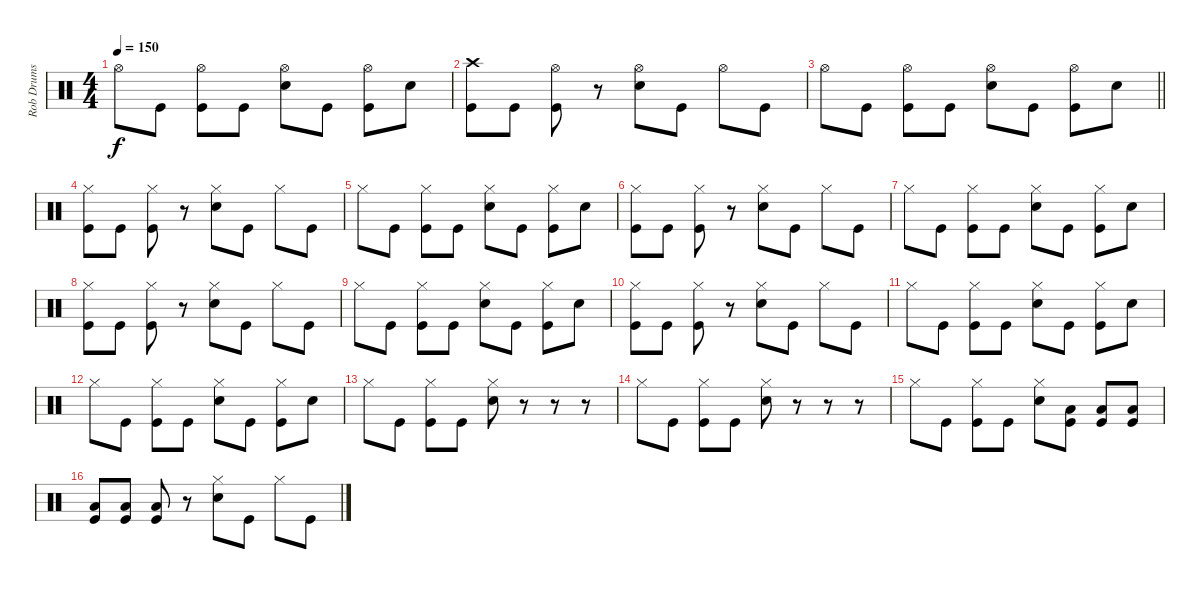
\track ("Rob Drums" "Rob Drums") {instrument percussion}
\staff {score}
\articulation defaults
\ts (4 4)
\tempo 150
\clef neutral
\ks c "Hi-Hat (open)".8{dy f} "Kick (hit)".8
("Hi-Hat (open)" "Kick (hit)").8 "Kick (hit)".8 ("Hi-Hat (open)" "Snare (hit) 2").8 "Kick (hit)".8 ("Hi-Hat (open)" "Kick (hit)").8 "Snare (hit) 2".8 |
("Crash high (hit)" "Kick (hit)").8 "Kick (hit)".8 ("Hi-Hat (open)" "Kick (hit)").8 r.8 ("Hi-Hat (open)" "Snare (hit) 2").8 "Kick (hit)".8 "Hi-Hat (open)".8 "Kick (hit)".8 |
\barLineRight lightlight "Hi-Hat (open)".8 "Kick (hit)".8
("Hi-Hat (open)" "Kick (hit)").8 "Kick (hit)".8 ("Hi-Hat (open)" "Snare (hit) 2").8 "Kick (hit)".8 ("Hi-Hat (open)" "Kick (hit)").8 "Snare (hit) 2".8 |
("Hi-Hat (closed)" "Kick (hit)").8 "Kick (hit)".8 ("Hi-Hat (closed)" "Kick (hit)").8 r.8 ("Hi-Hat (closed)" "Snare (hit) 2").8 "Kick (hit)".8 "Hi-Hat (closed)".8 "Kick (hit)".8 |
"Hi-Hat (closed)".8 "Kick (hit)".8 ("Hi-Hat (closed)" "Kick (hit)").8 "Kick (hit)".8 ("Hi-Hat (closed)" "Snare (hit) 2").8 "Kick (hit)".8 ("Hi-Hat (closed)" "Kick (hit)").8 "Snare (hit) 2".8 |
("Hi-Hat (closed)" "Kick (hit)").8 "Kick (hit)".8 ("Hi-Hat (closed)" "Kick (hit)").8 r.8 ("Hi-Hat (closed)" "Snare (hit) 2").8 "Kick (hit)".8 "Hi-Hat (closed)".8 "Kick (hit)".8 |
"Hi-Hat (closed)".8 "Kick (hit)".8 ("Hi-Hat (closed)" "Kick (hit)").8 "Kick (hit)".8 ("Hi-Hat (closed)" "Snare (hit) 2").8 "Kick (hit)".8 ("Hi-Hat (closed)" "Kick (hit)").8 "Snare (hit) 2".8 |
("Hi-Hat (closed)" "Kick (hit)").8 "Kick (hit)".8 ("Hi-Hat (closed)" "Kick (hit)").8 r.8 ("Hi-Hat (closed)" "Snare (hit) 2").8 "Kick (hit)".8 "Hi-Hat (closed)".8 "Kick (hit)".8 |
"Hi-Hat (closed)".8 "Kick (hit)".8 ("Hi-Hat (closed)" "Kick (hit)").8 "Kick (hit)".8 ("Hi-Hat (closed)" "Snare (hit) 2").8 "Kick (hit)".8 ("Hi-Hat (closed)" "Kick (hit)").8 "Snare (hit) 2".8 |
("Hi-Hat (closed)" "Kick (hit)").8 "Kick (hit)".8 ("Hi-Hat (closed)" "Kick (hit)").8 r.8 ("Hi-Hat (closed)" "Snare (hit) 2").8 "Kick (hit)".8 "Hi-Hat (closed)".8 "Kick (hit)".8 |
"Hi-Hat (closed)".8 "Kick (hit)".8 ("Hi-Hat (closed)" "Kick (hit)").8 "Kick (hit)".8 ("Hi-Hat (closed)" "Snare (hit) 2").8 "Kick (hit)".8 ("Hi-Hat (closed)" "Kick (hit)").8 "Snare (hit) 2".8 |
"Hi-Hat (closed)".8 "Kick (hit)".8 ("Hi-Hat (closed)" "Kick (hit)").8 "Kick (hit)".8 ("Hi-Hat (closed)" "Snare (hit) 2").8 "Kick (hit)".8 ("Hi-Hat (closed)" "Kick (hit)").8 "Snare (hit) 2".8 |
"Hi-Hat (closed)".8 "Kick (hit)".8 ("Hi-Hat (closed)" "Kick (hit)").8 "Kick (hit)".8 ("Hi-Hat (closed)" "Snare (hit) 2").8 r.8 r.8 r.8 |
"Hi-Hat (closed)".8 "Kick (hit)".8 ("Hi-Hat (closed)" "Kick (hit)").8 "Kick (hit)".8 ("Hi-Hat (closed)" "Snare (hit) 2").8 r.8 r.8 r.8 |
"Hi-Hat (closed)".8 "Kick (hit)".8 ("Hi-Hat (closed)" "Kick (hit)").8 "Kick (hit)".8 ("Hi-Hat (closed)" "Snare (hit) 2").8 ("Low Floor Tom (hit)" "Kick (hit)").8 ("Low Floor Tom (hit)" "Kick (hit)").8 ("Low Floor Tom (hit)" "Kick (hit)").8 |
("Low Floor Tom (hit)" "Kick (hit)").8 ("Low Floor Tom (hit)" "Kick (hit)").8 ("Low Floor Tom (hit)" "Kick (hit)").8 r.8 ("Hi-Hat (closed)" "Snare (hit) 2").8 "Kick (hit)".8 "Hi-Hat (closed)".8 "Kick (hit)".8
